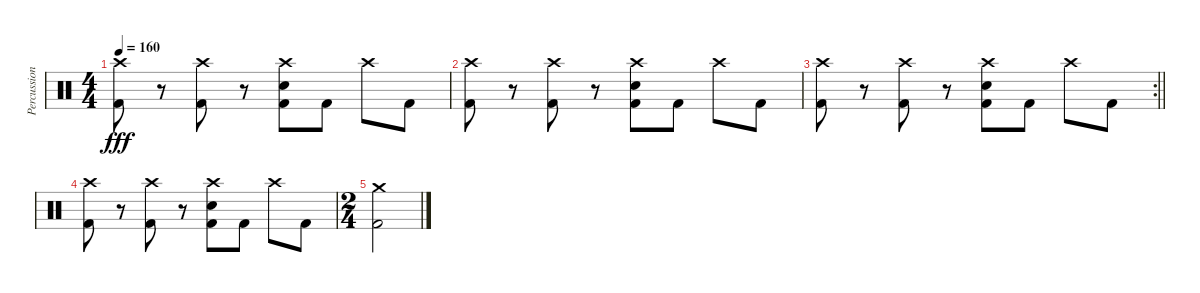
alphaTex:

\track ("Percussion" "Percussion") {instrument percussion}
\staff {score}
\articulation defaults
\ts (4 4)
\tempo 160
\clef neutral
\ks c
("Crash high (hit)" "Kick (hit) 2").8{dy fff} r.8 ("Crash high (hit)" "Kick (hit) 2").8 r.8 ("Crash high (hit)" "Snare (hit) 2" "Kick (hit) 2").8 "Kick (hit) 2".8 "Crash high (hit)".8 "Kick (hit) 2".8 |
("Crash high (hit)" "Kick (hit) 2").8 r.8 ("Crash high (hit)" "Kick (hit) 2").8 r.8 ("Crash high (hit)" "Snare (hit) 2" "Kick (hit) 2").8 "Kick (hit) 2".8 "Crash high (hit)".8 "Kick (hit) 2".8 |
\rc 2
\barLineRight lightlight
("Crash high (hit)" "Kick (hit) 2").8 r.8 ("Crash high (hit)" "Kick (hit) 2").8 r.8 ("Crash high (hit)" "Snare (hit) 2" "Kick (hit) 2").8 "Kick (hit) 2".8 "Crash high (hit)".8 "Kick (hit) 2".8 |
\section ("" "")
("Crash high (hit)" "Kick (hit) 2").8 r.8 ("Crash high (hit)" "Kick (hit) 2").8 r.8 ("Crash high (hit)" "Snare (hit) 2" "Kick (hit) 2").8 "Kick (hit) 2".8 "Crash high (hit)".8 "Kick (hit) 2".8 |
\ts (2 4)
("Crash medium (hit)" "Kick (hit) 2").2
